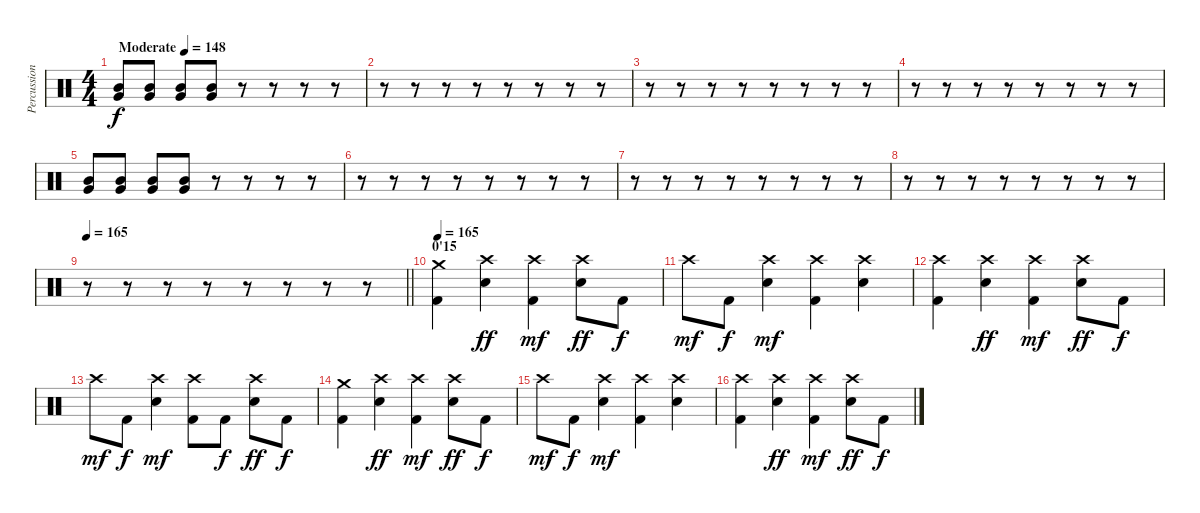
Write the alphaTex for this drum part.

\track ("Percussions" "Percussion") {instrument percussion}
\staff {score}
\articulation defaults
\ts (4 4)
\tempo (148 "Moderate")
\clef neutral
\ks c
("Mid Tom (hit)" "Very Low Tom (hit)").8{dy f} ("Mid Tom (hit)" "Very Low Tom (hit)").8 ("Mid Tom (hit)" "Very Low Tom (hit)").8 ("Mid Tom (hit)" "Very Low Tom (hit)").8 r.8 r.8 r.8 r.8 |
r.8 r.8 r.8 r.8 r.8 r.8 r.8 r.8 |
r.8 r.8 r.8 r.8 r.8 r.8 r.8 r.8 |
r.8 r.8 r.8 r.8 r.8 r.8 r.8 r.8 |
("Mid Tom (hit)" "Very Low Tom (hit)").8 ("Mid Tom (hit)" "Very Low Tom (hit)").8 ("Mid Tom (hit)" "Very Low Tom (hit)").8 ("Mid Tom (hit)" "Very Low Tom (hit)").8 r.8 r.8 r.8 r.8 |
r.8 r.8 r.8 r.8 r.8 r.8 r.8 r.8 |
r.8 r.8 r.8 r.8 r.8 r.8 r.8 r.8 |
r.8 r.8 r.8 r.8 r.8 r.8 r.8 r.8 |
\tempo 165
\barLineRight lightlight
r.8 r.8 r.8 r.8 r.8 r.8 r.8 r.8 |
\section ("" "0'15")
\tempo 165
("Crash medium (hit)" "Kick (hit) 2").4 ("Crash high (hit)" "Electric Snare (hit)").4{dy ff} ("Crash high (hit)" "Kick (hit) 2").4{dy mf} ("Crash high (hit)" "Electric Snare (hit)").8{dy ff} "Kick (hit) 2".8{dy f} |
"Crash high (hit)".8{dy mf} "Kick (hit) 2".8{dy f} ("Crash high (hit)" "Electric Snare (hit)").4{dy mf} ("Crash high (hit)" "Kick (hit) 2").4 ("Crash high (hit)" "Electric Snare (hit)").4 |
("Crash high (hit)" "Kick (hit) 2").4 ("Crash high (hit)" "Electric Snare (hit)").4{dy ff} ("Crash high (hit)" "Kick (hit) 2").4{dy mf} ("Crash high (hit)" "Electric Snare (hit)").8{dy ff} "Kick (hit) 2".8{dy f} |
"Crash high (hit)".8{dy mf} "Kick (hit) 2".8{dy f} ("Crash high (hit)" "Electric Snare (hit)").4{dy mf} ("Crash high (hit)" "Kick (hit) 2").8 "Kick (hit) 2".8{dy f} ("Crash high (hit)" "Electric Snare (hit)").8{dy ff} "Kick (hit) 2".8{dy f} |
("Crash medium (hit)" "Kick (hit) 2").4 ("Crash high (hit)" "Electric Snare (hit)").4{dy ff} ("Crash high (hit)" "Kick (hit) 2").4{dy mf} ("Crash high (hit)" "Electric Snare (hit)").8{dy ff} "Kick (hit) 2".8{dy f} |
"Crash high (hit)".8{dy mf} "Kick (hit) 2".8{dy f} ("Crash high (hit)" "Electric Snare (hit)").4{dy mf} ("Crash high (hit)" "Kick (hit) 2").4 ("Crash high (hit)" "Electric Snare (hit)").4 |
("Crash high (hit)" "Kick (hit) 2").4 ("Crash high (hit)" "Electric Snare (hit)").4{dy ff} ("Crash high (hit)" "Kick (hit) 2").4{dy mf} ("Crash high (hit)" "Electric Snare (hit)").8{dy ff} "Kick (hit) 2".8{dy f}
